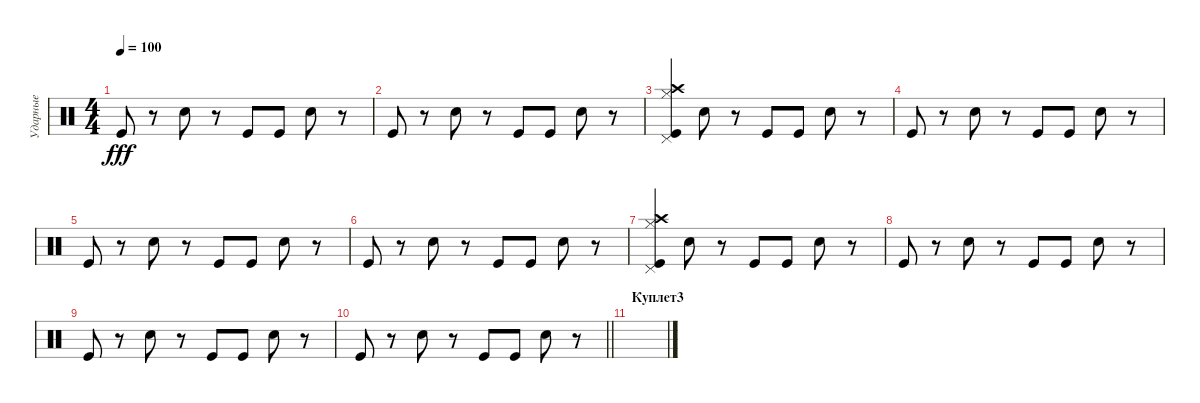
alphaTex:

\track ("Ударные" "Ударные") {instrument percussion}
\staff {score}
\articulation defaults
\ts (4 4)
\tempo 100
\clef neutral
\ks c "Kick (hit)".8{dy fff}
r.8 "Electric Snare (hit)".8 r.8 "Kick (hit)".8 "Kick (hit)".8 "Electric Snare (hit)".8 r.8 |
"Kick (hit)".8 r.8 "Electric Snare (hit)".8 r.8 "Kick (hit)".8 "Kick (hit)".8 "Electric Snare (hit)".8 r.8 |
("Crash high (hit)" "Hi-Hat (closed)" "Pedal Hi-Hat (hit)" "Kick (hit)").4 "Electric Snare (hit)".8 r.8 "Kick (hit)".8 "Kick (hit)".8 "Electric Snare (hit)".8 r.8 |
"Kick (hit)".8 r.8 "Electric Snare (hit)".8 r.8 "Kick (hit)".8 "Kick (hit)".8 "Electric Snare (hit)".8 r.8 |
"Kick (hit)".8 r.8 "Electric Snare (hit)".8 r.8 "Kick (hit)".8 "Kick (hit)".8 "Electric Snare (hit)".8 r.8 |
"Kick (hit)".8 r.8 "Electric Snare (hit)".8 r.8 "Kick (hit)".8 "Kick (hit)".8 "Electric Snare (hit)".8 r.8 |
("Crash high (hit)" "Hi-Hat (closed)" "Pedal Hi-Hat (hit)" "Kick (hit)").4 "Electric Snare (hit)".8 r.8 "Kick (hit)".8 "Kick (hit)".8 "Electric Snare (hit)".8 r.8 |
"Kick (hit)".8 r.8 "Electric Snare (hit)".8 r.8 "Kick (hit)".8 "Kick (hit)".8 "Electric Snare (hit)".8 r.8 |
"Kick (hit)".8 r.8 "Electric Snare (hit)".8 r.8 "Kick (hit)".8 "Kick (hit)".8 "Electric Snare (hit)".8 r.8 |
\barLineRight lightlight "Kick (hit)".8
r.8 "Electric Snare (hit)".8 r.8 "Kick (hit)".8 "Kick (hit)".8 "Electric Snare (hit)".8 r.8 |
\section ("" "Куплет3")
